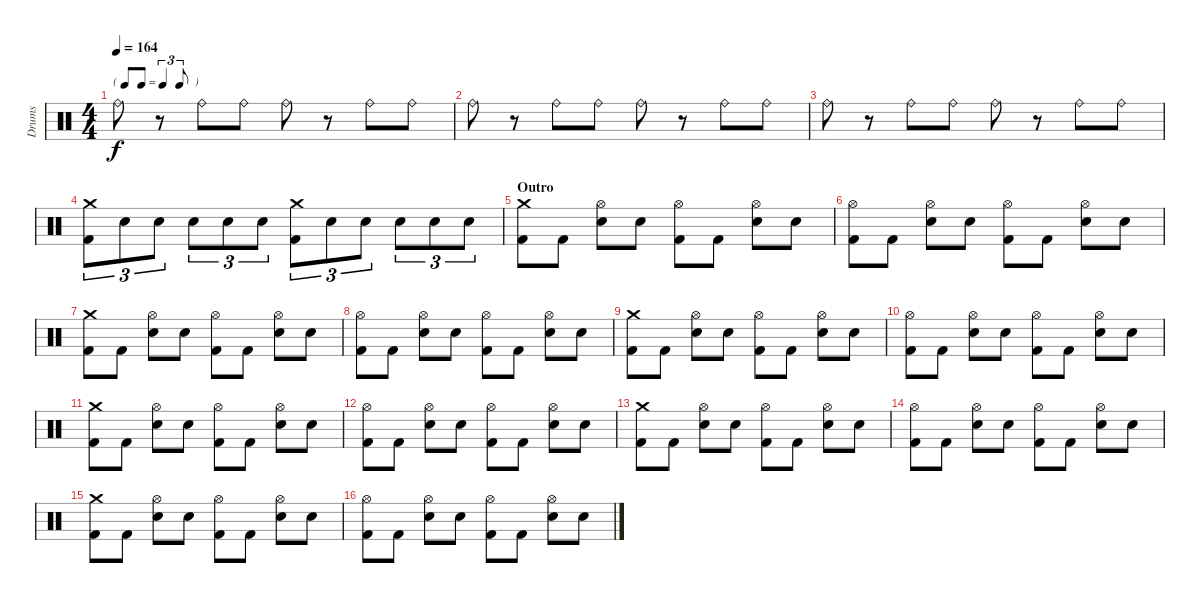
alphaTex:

\track ("Drums" "Drums") {instrument percussion}
\staff {score}
\articulation defaults
\ts (4 4)
\tf triplet8th
\tempo 164
\clef neutral
\ks c "Ride (bell)".8{dy f}
r.8 "Ride (bell)".8 "Ride (bell)".8 "Ride (bell)".8 r.8 "Ride (bell)".8 "Ride (bell)".8 |
"Ride (bell)".8 r.8 "Ride (bell)".8 "Ride (bell)".8 "Ride (bell)".8 r.8 "Ride (bell)".8 "Ride (bell)".8 |
"Ride (bell)".8 r.8 "Ride (bell)".8 "Ride (bell)".8 "Ride (bell)".8 r.8 "Ride (bell)".8 "Ride (bell)".8 |
("Crash medium (hit)" "Kick (hit) 2").8{tu (3 2)} "Electric Snare (hit)".8{tu (3 2)} "Electric Snare (hit)".8{tu (3 2)} "Electric Snare (hit)".8{tu (3 2)} "Electric Snare (hit)".8{tu (3 2)} "Electric Snare (hit)".8{tu (3 2)} ("Crash medium (hit)" "Kick (hit) 2").8{tu (3 2)} "Electric Snare (hit)".8{tu (3 2)} "Electric Snare (hit)".8{tu (3 2)} "Electric Snare (hit)".8{tu (3 2)} "Electric Snare (hit)".8{tu (3 2)} "Electric Snare (hit)".8{tu (3 2)} |
\section ("" "Outro")
("Crash medium (hit)" "Kick (hit) 2").8 "Kick (hit) 2".8 ("Hi-Hat (open)" "Electric Snare (hit)").8 "Electric Snare (hit)".8 ("Hi-Hat (open)" "Kick (hit) 2").8 "Kick (hit) 2".8 ("Hi-Hat (open)" "Electric Snare (hit)").8 "Electric Snare (hit)".8 |
("Hi-Hat (open)" "Kick (hit) 2").8 "Kick (hit) 2".8 ("Hi-Hat (open)" "Electric Snare (hit)").8 "Electric Snare (hit)".8 ("Hi-Hat (open)" "Kick (hit) 2").8 "Kick (hit) 2".8 ("Hi-Hat (open)" "Electric Snare (hit)").8 "Electric Snare (hit)".8 |
("Crash medium (hit)" "Kick (hit) 2").8 "Kick (hit) 2".8 ("Hi-Hat (open)" "Electric Snare (hit)").8 "Electric Snare (hit)".8 ("Hi-Hat (open)" "Kick (hit) 2").8 "Kick (hit) 2".8 ("Hi-Hat (open)" "Electric Snare (hit)").8 "Electric Snare (hit)".8 |
("Hi-Hat (open)" "Kick (hit) 2").8 "Kick (hit) 2".8 ("Hi-Hat (open)" "Electric Snare (hit)").8 "Electric Snare (hit)".8 ("Hi-Hat (open)" "Kick (hit) 2").8 "Kick (hit) 2".8 ("Hi-Hat (open)" "Electric Snare (hit)").8 "Electric Snare (hit)".8 |
("Crash medium (hit)" "Kick (hit) 2").8 "Kick (hit) 2".8 ("Hi-Hat (open)" "Electric Snare (hit)").8 "Electric Snare (hit)".8 ("Hi-Hat (open)" "Kick (hit) 2").8 "Kick (hit) 2".8 ("Hi-Hat (open)" "Electric Snare (hit)").8 "Electric Snare (hit)".8 |
("Hi-Hat (open)" "Kick (hit) 2").8 "Kick (hit) 2".8 ("Hi-Hat (open)" "Electric Snare (hit)").8 "Electric Snare (hit)".8 ("Hi-Hat (open)" "Kick (hit) 2").8 "Kick (hit) 2".8 ("Hi-Hat (open)" "Electric Snare (hit)").8 "Electric Snare (hit)".8 |
("Crash medium (hit)" "Kick (hit) 2").8 "Kick (hit) 2".8 ("Hi-Hat (open)" "Electric Snare (hit)").8 "Electric Snare (hit)".8 ("Hi-Hat (open)" "Kick (hit) 2").8 "Kick (hit) 2".8 ("Hi-Hat (open)" "Electric Snare (hit)").8 "Electric Snare (hit)".8 |
("Hi-Hat (open)" "Kick (hit) 2").8 "Kick (hit) 2".8 ("Hi-Hat (open)" "Electric Snare (hit)").8 "Electric Snare (hit)".8 ("Hi-Hat (open)" "Kick (hit) 2").8 "Kick (hit) 2".8 ("Hi-Hat (open)" "Electric Snare (hit)").8 "Electric Snare (hit)".8 |
("Crash medium (hit)" "Kick (hit) 2").8 "Kick (hit) 2".8 ("Hi-Hat (open)" "Electric Snare (hit)").8 "Electric Snare (hit)".8 ("Hi-Hat (open)" "Kick (hit) 2").8 "Kick (hit) 2".8 ("Hi-Hat (open)" "Electric Snare (hit)").8 "Electric Snare (hit)".8 |
("Hi-Hat (open)" "Kick (hit) 2").8 "Kick (hit) 2".8 ("Hi-Hat (open)" "Electric Snare (hit)").8 "Electric Snare (hit)".8 ("Hi-Hat (open)" "Kick (hit) 2").8 "Kick (hit) 2".8 ("Hi-Hat (open)" "Electric Snare (hit)").8 "Electric Snare (hit)".8 |
("Crash medium (hit)" "Kick (hit) 2").8 "Kick (hit) 2".8 ("Hi-Hat (open)" "Electric Snare (hit)").8 "Electric Snare (hit)".8 ("Hi-Hat (open)" "Kick (hit) 2").8 "Kick (hit) 2".8 ("Hi-Hat (open)" "Electric Snare (hit)").8 "Electric Snare (hit)".8 |
("Hi-Hat (open)" "Kick (hit) 2").8 "Kick (hit) 2".8 ("Hi-Hat (open)" "Electric Snare (hit)").8 "Electric Snare (hit)".8 ("Hi-Hat (open)" "Kick (hit) 2").8 "Kick (hit) 2".8 ("Hi-Hat (open)" "Electric Snare (hit)").8 "Electric Snare (hit)".8
